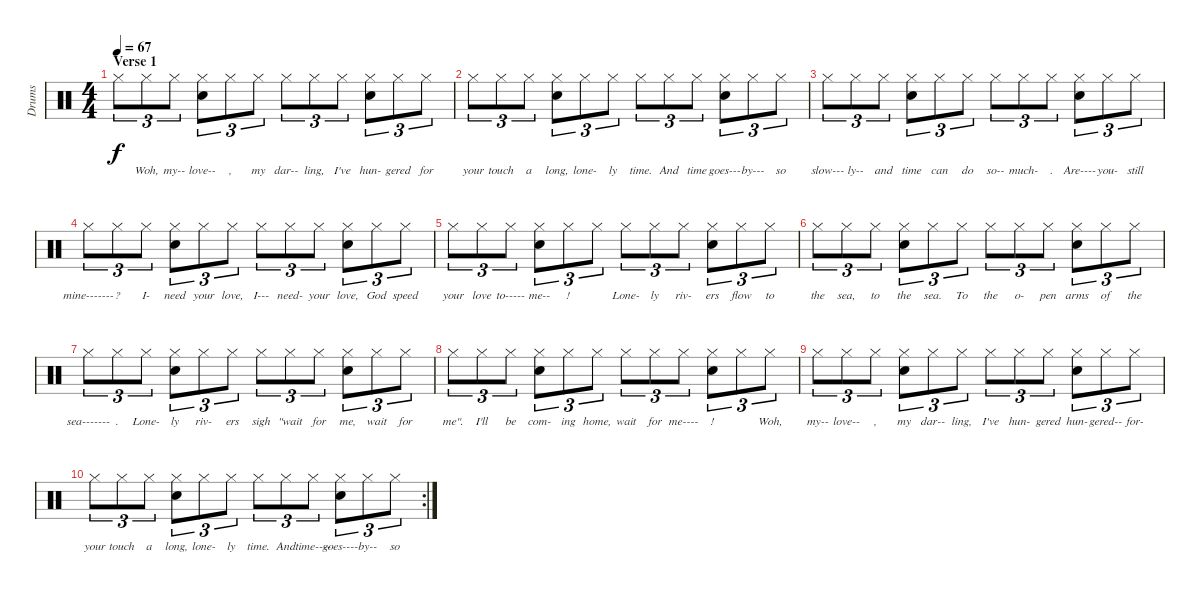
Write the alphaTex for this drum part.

\track ("Drums" "Drums") {instrument percussion}
\staff {score}
\articulation defaults
\ts (4 4)
\section ("" "Verse 1")
\tempo 67
\clef neutral
\ks c "Hi-Hat (closed)".8{tu (3 2) lyrics (0 "") lyrics (1 "") lyrics (2 "") lyrics (3 "") lyrics (4 "") dy f} "Hi-Hat (closed)".8{tu (3 2) lyrics (0 "Woh,") lyrics (1 "") lyrics (2 "") lyrics (3 "") lyrics (4 "")} "Hi-Hat (closed)".8{tu (3 2) lyrics (0 "my--") lyrics (1 "") lyrics (2 "") lyrics (3 "") lyrics (4 "")}
("Hi-Hat (closed)" "Snare (hit) 2").8{tu (3 2) lyrics (0 "love--") lyrics (1 "") lyrics (2 "") lyrics (3 "") lyrics (4 "")} "Hi-Hat (closed)".8{tu (3 2) lyrics (0 ",") lyrics (1 "") lyrics (2 "") lyrics (3 "") lyrics (4 "")} "Hi-Hat (closed)".8{tu (3 2) lyrics (0 "my") lyrics (1 "") lyrics (2 "") lyrics (3 "") lyrics (4 "")} "Hi-Hat (closed)".8{tu (3 2) lyrics (0 "dar--") lyrics (1 "") lyrics (2 "") lyrics (3 "") lyrics (4 "")} "Hi-Hat (closed)".8{tu (3 2) lyrics (0 "ling,") lyrics (1 "") lyrics (2 "") lyrics (3 "") lyrics (4 "")} "Hi-Hat (closed)".8{tu (3 2) lyrics (0 "I've") lyrics (1 "") lyrics (2 "") lyrics (3 "") lyrics (4 "")} ("Hi-Hat (closed)" "Snare (hit) 2").8{tu (3 2) lyrics (0 "hun-") lyrics (1 "") lyrics (2 "") lyrics (3 "") lyrics (4 "")} "Hi-Hat (closed)".8{tu (3 2) lyrics (0 "gered") lyrics (1 "") lyrics (2 "") lyrics (3 "") lyrics (4 "")} "Hi-Hat (closed)".8{tu (3 2) lyrics (0 "for") lyrics (1 "") lyrics (2 "") lyrics (3 "") lyrics (4 "")} |
"Hi-Hat (closed)".8{tu (3 2) lyrics (0 "your") lyrics (1 "") lyrics (2 "") lyrics (3 "") lyrics (4 "")} "Hi-Hat (closed)".8{tu (3 2) lyrics (0 "touch") lyrics (1 "") lyrics (2 "") lyrics (3 "") lyrics (4 "")} "Hi-Hat (closed)".8{tu (3 2) lyrics (0 "a") lyrics (1 "") lyrics (2 "") lyrics (3 "") lyrics (4 "")} ("Hi-Hat (closed)" "Snare (hit) 2").8{tu (3 2) lyrics (0 "long,") lyrics (1 "") lyrics (2 "") lyrics (3 "") lyrics (4 "")} "Hi-Hat (closed)".8{tu (3 2) lyrics (0 "lone-") lyrics (1 "") lyrics (2 "") lyrics (3 "") lyrics (4 "")} "Hi-Hat (closed)".8{tu (3 2) lyrics (0 "ly") lyrics (1 "") lyrics (2 "") lyrics (3 "") lyrics (4 "")} "Hi-Hat (closed)".8{tu (3 2) lyrics (0 "time.") lyrics (1 "") lyrics (2 "") lyrics (3 "") lyrics (4 "")} "Hi-Hat (closed)".8{tu (3 2) lyrics (0 "And") lyrics (1 "") lyrics (2 "") lyrics (3 "") lyrics (4 "")} "Hi-Hat (closed)".8{tu (3 2) lyrics (0 "time") lyrics (1 "") lyrics (2 "") lyrics (3 "") lyrics (4 "")} ("Hi-Hat (closed)" "Snare (hit) 2").8{tu (3 2) lyrics (0 "goes---") lyrics (1 "") lyrics (2 "") lyrics (3 "") lyrics (4 "")} "Hi-Hat (closed)".8{tu (3 2) lyrics (0 "by---") lyrics (1 "") lyrics (2 "") lyrics (3 "") lyrics (4 "")} "Hi-Hat (closed)".8{tu (3 2) lyrics (0 "so") lyrics (1 "") lyrics (2 "") lyrics (3 "") lyrics (4 "")} |
"Hi-Hat (closed)".8{tu (3 2) lyrics (0 "slow---") lyrics (1 "") lyrics (2 "") lyrics (3 "") lyrics (4 "")} "Hi-Hat (closed)".8{tu (3 2) lyrics (0 "ly--") lyrics (1 "") lyrics (2 "") lyrics (3 "") lyrics (4 "")} "Hi-Hat (closed)".8{tu (3 2) lyrics (0 "and") lyrics (1 "") lyrics (2 "") lyrics (3 "") lyrics (4 "")} ("Hi-Hat (closed)" "Snare (hit) 2").8{tu (3 2) lyrics (0 "time") lyrics (1 "") lyrics (2 "") lyrics (3 "") lyrics (4 "")} "Hi-Hat (closed)".8{tu (3 2) lyrics (0 "can") lyrics (1 "") lyrics (2 "") lyrics (3 "") lyrics (4 "")} "Hi-Hat (closed)".8{tu (3 2) lyrics (0 "do") lyrics (1 "") lyrics (2 "") lyrics (3 "") lyrics (4 "")} "Hi-Hat (closed)".8{tu (3 2) lyrics (0 "so--") lyrics (1 "") lyrics (2 "") lyrics (3 "") lyrics (4 "")} "Hi-Hat (closed)".8{tu (3 2) lyrics (0 "much-") lyrics (1 "") lyrics (2 "") lyrics (3 "") lyrics (4 "")} "Hi-Hat (closed)".8{tu (3 2) lyrics (0 ".") lyrics (1 "") lyrics (2 "") lyrics (3 "") lyrics (4 "")} ("Hi-Hat (closed)" "Snare (hit) 2").8{tu (3 2) lyrics (0 "Are----") lyrics (1 "") lyrics (2 "") lyrics (3 "") lyrics (4 "")} "Hi-Hat (closed)".8{tu (3 2) lyrics (0 "you-") lyrics (1 "") lyrics (2 "") lyrics (3 "") lyrics (4 "")} "Hi-Hat (closed)".8{tu (3 2) lyrics (0 "still") lyrics (1 "") lyrics (2 "") lyrics (3 "") lyrics (4 "")} |
"Hi-Hat (closed)".8{tu (3 2) lyrics (0 "mine-------") lyrics (1 "") lyrics (2 "") lyrics (3 "") lyrics (4 "")} "Hi-Hat (closed)".8{tu (3 2) lyrics (0 "?") lyrics (1 "") lyrics (2 "") lyrics (3 "") lyrics (4 "")} "Hi-Hat (closed)".8{tu (3 2) lyrics (0 "I-") lyrics (1 "") lyrics (2 "") lyrics (3 "") lyrics (4 "")} ("Hi-Hat (closed)" "Snare (hit) 2").8{tu (3 2) lyrics (0 "need") lyrics (1 "") lyrics (2 "") lyrics (3 "") lyrics (4 "")} "Hi-Hat (closed)".8{tu (3 2) lyrics (0 "your") lyrics (1 "") lyrics (2 "") lyrics (3 "") lyrics (4 "")} "Hi-Hat (closed)".8{tu (3 2) lyrics (0 "love,") lyrics (1 "") lyrics (2 "") lyrics (3 "") lyrics (4 "")} "Hi-Hat (closed)".8{tu (3 2) lyrics (0 "I---") lyrics (1 "") lyrics (2 "") lyrics (3 "") lyrics (4 "")} "Hi-Hat (closed)".8{tu (3 2) lyrics (0 "need-") lyrics (1 "") lyrics (2 "") lyrics (3 "") lyrics (4 "")} "Hi-Hat (closed)".8{tu (3 2) lyrics (0 "your") lyrics (1 "") lyrics (2 "") lyrics (3 "") lyrics (4 "")} ("Hi-Hat (closed)" "Snare (hit) 2").8{tu (3 2) lyrics (0 "love,") lyrics (1 "") lyrics (2 "") lyrics (3 "") lyrics (4 "")} "Hi-Hat (closed)".8{tu (3 2) lyrics (0 "God") lyrics (1 "") lyrics (2 "") lyrics (3 "") lyrics (4 "")} "Hi-Hat (closed)".8{tu (3 2) lyrics (0 "speed") lyrics (1 "") lyrics (2 "") lyrics (3 "") lyrics (4 "")} |
"Hi-Hat (closed)".8{tu (3 2) lyrics (0 "your") lyrics (1 "") lyrics (2 "") lyrics (3 "") lyrics (4 "")} "Hi-Hat (closed)".8{tu (3 2) lyrics (0 "love") lyrics (1 "") lyrics (2 "") lyrics (3 "") lyrics (4 "")} "Hi-Hat (closed)".8{tu (3 2) lyrics (0 "to-----") lyrics (1 "") lyrics (2 "") lyrics (3 "") lyrics (4 "")} ("Hi-Hat (closed)" "Snare (hit) 2").8{tu (3 2) lyrics (0 "me--") lyrics (1 "") lyrics (2 "") lyrics (3 "") lyrics (4 "")} "Hi-Hat (closed)".8{tu (3 2) lyrics (0 "!") lyrics (1 "") lyrics (2 "") lyrics (3 "") lyrics (4 "")} "Hi-Hat (closed)".8{tu (3 2) lyrics (0 "") lyrics (1 "") lyrics (2 "") lyrics (3 "") lyrics (4 "")} "Hi-Hat (closed)".8{tu (3 2) lyrics (0 "Lone-") lyrics (1 "") lyrics (2 "") lyrics (3 "") lyrics (4 "")} "Hi-Hat (closed)".8{tu (3 2) lyrics (0 "ly") lyrics (1 "") lyrics (2 "") lyrics (3 "") lyrics (4 "")} "Hi-Hat (closed)".8{tu (3 2) lyrics (0 "riv-") lyrics (1 "") lyrics (2 "") lyrics (3 "") lyrics (4 "")} ("Hi-Hat (closed)" "Snare (hit) 2").8{tu (3 2) lyrics (0 "ers") lyrics (1 "") lyrics (2 "") lyrics (3 "") lyrics (4 "")} "Hi-Hat (closed)".8{tu (3 2) lyrics (0 "flow") lyrics (1 "") lyrics (2 "") lyrics (3 "") lyrics (4 "")} "Hi-Hat (closed)".8{tu (3 2) lyrics (0 "to") lyrics (1 "") lyrics (2 "") lyrics (3 "") lyrics (4 "")} |
"Hi-Hat (closed)".8{tu (3 2) lyrics (0 "the") lyrics (1 "") lyrics (2 "") lyrics (3 "") lyrics (4 "")} "Hi-Hat (closed)".8{tu (3 2) lyrics (0 "sea,") lyrics (1 "") lyrics (2 "") lyrics (3 "") lyrics (4 "")} "Hi-Hat (closed)".8{tu (3 2) lyrics (0 "to") lyrics (1 "") lyrics (2 "") lyrics (3 "") lyrics (4 "")} ("Hi-Hat (closed)" "Snare (hit) 2").8{tu (3 2) lyrics (0 "the") lyrics (1 "") lyrics (2 "") lyrics (3 "") lyrics (4 "")} "Hi-Hat (closed)".8{tu (3 2) lyrics (0 "sea.") lyrics (1 "") lyrics (2 "") lyrics (3 "") lyrics (4 "")} "Hi-Hat (closed)".8{tu (3 2) lyrics (0 "To") lyrics (1 "") lyrics (2 "") lyrics (3 "") lyrics (4 "")} "Hi-Hat (closed)".8{tu (3 2) lyrics (0 "the") lyrics (1 "") lyrics (2 "") lyrics (3 "") lyrics (4 "")} "Hi-Hat (closed)".8{tu (3 2) lyrics (0 "o-") lyrics (1 "") lyrics (2 "") lyrics (3 "") lyrics (4 "")} "Hi-Hat (closed)".8{tu (3 2) lyrics (0 "pen") lyrics (1 "") lyrics (2 "") lyrics (3 "") lyrics (4 "")} ("Hi-Hat (closed)" "Snare (hit) 2").8{tu (3 2) lyrics (0 "arms") lyrics (1 "") lyrics (2 "") lyrics (3 "") lyrics (4 "")} "Hi-Hat (closed)".8{tu (3 2) lyrics (0 "of") lyrics (1 "") lyrics (2 "") lyrics (3 "") lyrics (4 "")} "Hi-Hat (closed)".8{tu (3 2) lyrics (0 "the") lyrics (1 "") lyrics (2 "") lyrics (3 "") lyrics (4 "")} |
"Hi-Hat (closed)".8{tu (3 2) lyrics (0 "sea-------") lyrics (1 "") lyrics (2 "") lyrics (3 "") lyrics (4 "")} "Hi-Hat (closed)".8{tu (3 2) lyrics (0 ".") lyrics (1 "") lyrics (2 "") lyrics (3 "") lyrics (4 "")} "Hi-Hat (closed)".8{tu (3 2) lyrics (0 "Lone-") lyrics (1 "") lyrics (2 "") lyrics (3 "") lyrics (4 "")} ("Hi-Hat (closed)" "Snare (hit) 2").8{tu (3 2) lyrics (0 "ly") lyrics (1 "") lyrics (2 "") lyrics (3 "") lyrics (4 "")} "Hi-Hat (closed)".8{tu (3 2) lyrics (0 "riv-") lyrics (1 "") lyrics (2 "") lyrics (3 "") lyrics (4 "")} "Hi-Hat (closed)".8{tu (3 2) lyrics (0 "ers") lyrics (1 "") lyrics (2 "") lyrics (3 "") lyrics (4 "")} "Hi-Hat (closed)".8{tu (3 2) lyrics (0 "sigh") lyrics (1 "") lyrics (2 "") lyrics (3 "") lyrics (4 "")} "Hi-Hat (closed)".8{tu (3 2) lyrics (0 "\"wait") lyrics (1 "") lyrics (2 "") lyrics (3 "") lyrics (4 "")} "Hi-Hat (closed)".8{tu (3 2) lyrics (0 "for") lyrics (1 "") lyrics (2 "") lyrics (3 "") lyrics (4 "")} ("Hi-Hat (closed)" "Snare (hit) 2").8{tu (3 2) lyrics (0 "me,") lyrics (1 "") lyrics (2 "") lyrics (3 "") lyrics (4 "")} "Hi-Hat (closed)".8{tu (3 2) lyrics (0 "wait") lyrics (1 "") lyrics (2 "") lyrics (3 "") lyrics (4 "")} "Hi-Hat (closed)".8{tu (3 2) lyrics (0 "for") lyrics (1 "") lyrics (2 "") lyrics (3 "") lyrics (4 "")} |
"Hi-Hat (closed)".8{tu (3 2) lyrics (0 "me\".") lyrics (1 "") lyrics (2 "") lyrics (3 "") lyrics (4 "")} "Hi-Hat (closed)".8{tu (3 2) lyrics (0 "I'll") lyrics (1 "") lyrics (2 "") lyrics (3 "") lyrics (4 "")} "Hi-Hat (closed)".8{tu (3 2) lyrics (0 "be") lyrics (1 "") lyrics (2 "") lyrics (3 "") lyrics (4 "")} ("Hi-Hat (closed)" "Snare (hit) 2").8{tu (3 2) lyrics (0 "com-") lyrics (1 "") lyrics (2 "") lyrics (3 "") lyrics (4 "")} "Hi-Hat (closed)".8{tu (3 2) lyrics (0 "ing") lyrics (1 "") lyrics (2 "") lyrics (3 "") lyrics (4 "")} "Hi-Hat (closed)".8{tu (3 2) lyrics (0 "home,") lyrics (1 "") lyrics (2 "") lyrics (3 "") lyrics (4 "")} "Hi-Hat (closed)".8{tu (3 2) lyrics (0 "wait") lyrics (1 "") lyrics (2 "") lyrics (3 "") lyrics (4 "")} "Hi-Hat (closed)".8{tu (3 2) lyrics (0 "for") lyrics (1 "") lyrics (2 "") lyrics (3 "") lyrics (4 "")} "Hi-Hat (closed)".8{tu (3 2) lyrics (0 "me----") lyrics (1 "") lyrics (2 "") lyrics (3 "") lyrics (4 "")} ("Hi-Hat (closed)" "Snare (hit) 2").8{tu (3 2) lyrics (0 "!") lyrics (1 "") lyrics (2 "") lyrics (3 "") lyrics (4 "")} "Hi-Hat (closed)".8{tu (3 2) lyrics (0 "") lyrics (1 "") lyrics (2 "") lyrics (3 "") lyrics (4 "")} "Hi-Hat (closed)".8{tu (3 2) lyrics (0 "Woh,") lyrics (1 "") lyrics (2 "") lyrics (3 "") lyrics (4 "")} |
"Hi-Hat (closed)".8{tu (3 2) lyrics (0 "my--") lyrics (1 "") lyrics (2 "") lyrics (3 "") lyrics (4 "")} "Hi-Hat (closed)".8{tu (3 2) lyrics (0 "love--") lyrics (1 "") lyrics (2 "") lyrics (3 "") lyrics (4 "")} "Hi-Hat (closed)".8{tu (3 2) lyrics (0 ",") lyrics (1 "") lyrics (2 "") lyrics (3 "") lyrics (4 "")} ("Hi-Hat (closed)" "Snare (hit) 2").8{tu (3 2) lyrics (0 "my") lyrics (1 "") lyrics (2 "") lyrics (3 "") lyrics (4 "")} "Hi-Hat (closed)".8{tu (3 2) lyrics (0 "dar--") lyrics (1 "") lyrics (2 "") lyrics (3 "") lyrics (4 "")} "Hi-Hat (closed)".8{tu (3 2) lyrics (0 "ling,") lyrics (1 "") lyrics (2 "") lyrics (3 "") lyrics (4 "")} "Hi-Hat (closed)".8{tu (3 2) lyrics (0 "I've") lyrics (1 "") lyrics (2 "") lyrics (3 "") lyrics (4 "")} "Hi-Hat (closed)".8{tu (3 2) lyrics (0 "hun-") lyrics (1 "") lyrics (2 "") lyrics (3 "") lyrics (4 "")} "Hi-Hat (closed)".8{tu (3 2) lyrics (0 "gered") lyrics (1 "") lyrics (2 "") lyrics (3 "") lyrics (4 "")} ("Hi-Hat (closed)" "Snare (hit) 2").8{tu (3 2) lyrics (0 "hun-") lyrics (1 "") lyrics (2 "") lyrics (3 "") lyrics (4 "")} "Hi-Hat (closed)".8{tu (3 2) lyrics (0 "gered--") lyrics (1 "") lyrics (2 "") lyrics (3 "") lyrics (4 "")} "Hi-Hat (closed)".8{tu (3 2) lyrics (0 "for-") lyrics (1 "") lyrics (2 "") lyrics (3 "") lyrics (4 "")} |
\rc 2 "Hi-Hat (closed)".8{tu (3 2) lyrics (0 "your") lyrics (1 "") lyrics (2 "") lyrics (3 "") lyrics (4 "")} "Hi-Hat (closed)".8{tu (3 2) lyrics (0 "touch") lyrics (1 "") lyrics (2 "") lyrics (3 "") lyrics (4 "")} "Hi-Hat (closed)".8{tu (3 2) lyrics (0 "a") lyrics (1 "") lyrics (2 "") lyrics (3 "") lyrics (4 "")}
("Hi-Hat (closed)" "Snare (hit) 2").8{tu (3 2) lyrics (0 "long,") lyrics (1 "") lyrics (2 "") lyrics (3 "") lyrics (4 "")} "Hi-Hat (closed)".8{tu (3 2) lyrics (0 "lone-") lyrics (1 "") lyrics (2 "") lyrics (3 "") lyrics (4 "")} "Hi-Hat (closed)".8{tu (3 2) lyrics (0 "ly") lyrics (1 "") lyrics (2 "") lyrics (3 "") lyrics (4 "")} "Hi-Hat (closed)".8{tu (3 2) lyrics (0 "time.") lyrics (1 "") lyrics (2 "") lyrics (3 "") lyrics (4 "")} "Hi-Hat (closed)".8{tu (3 2) lyrics (0 "And") lyrics (1 "") lyrics (2 "") lyrics (3 "") lyrics (4 "")} "Hi-Hat (closed)".8{tu (3 2) lyrics (0 "time----") lyrics (1 "") lyrics (2 "") lyrics (3 "") lyrics (4 "")} ("Hi-Hat (closed)" "Snare (hit) 2").8{tu (3 2) lyrics (0 "goes----") lyrics (1 "") lyrics (2 "") lyrics (3 "") lyrics (4 "")} "Hi-Hat (closed)".8{tu (3 2) lyrics (0 "by--") lyrics (1 "") lyrics (2 "") lyrics (3 "") lyrics (4 "")} "Hi-Hat (closed)".8{tu (3 2) lyrics (0 "so") lyrics (1 "") lyrics (2 "") lyrics (3 "") lyrics (4 "")}
